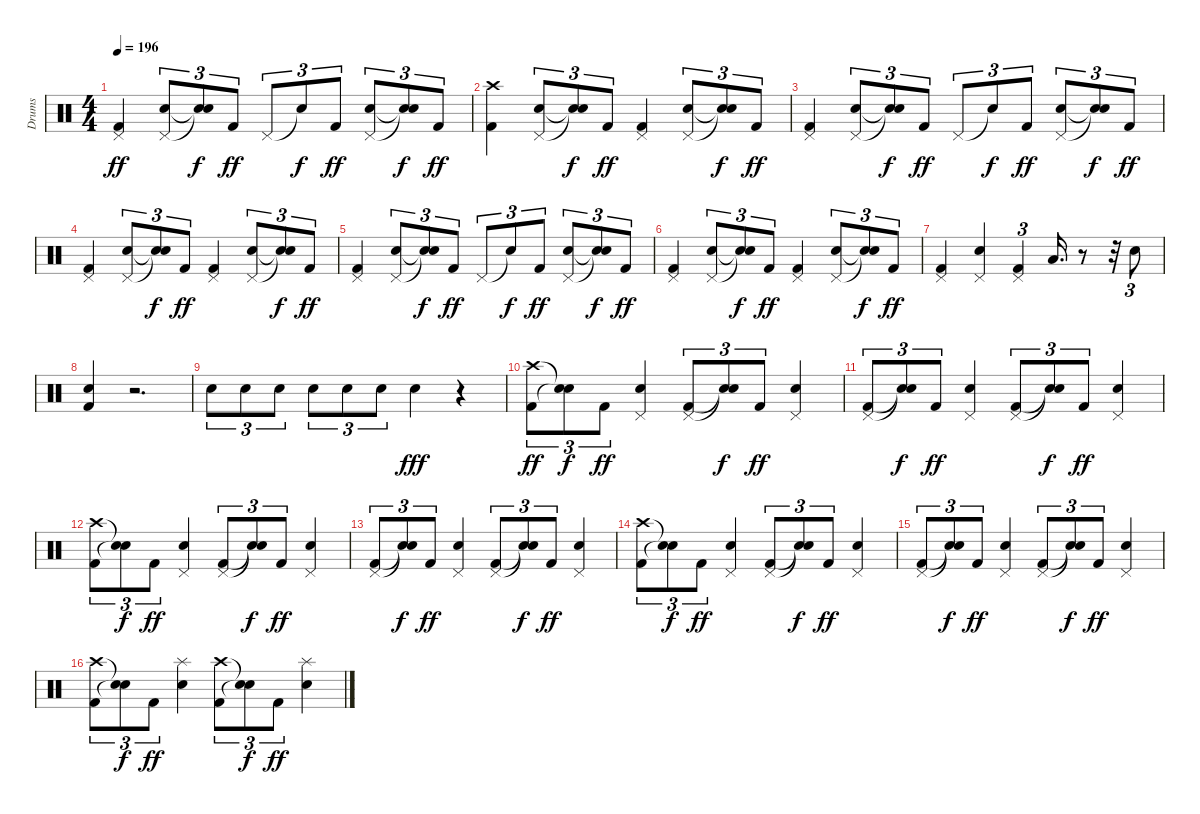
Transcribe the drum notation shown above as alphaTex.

\track ("Drums" "Drums") {instrument percussion}
\staff {score}
\articulation defaults
\ts (4 4)
\tempo 196
\clef neutral
\ks c
("Pedal Hi-Hat (hit)" "Kick (hit) 2").4{dy ff} ("Pedal Hi-Hat (hit)" "Electric Snare (hit)").8{tu (3 2)} ("Snare (hit)"{t} "Snare (hit)"{t}).8{tu (3 2) dy f} "Kick (hit) 2".8{tu (3 2) dy ff} "Pedal Hi-Hat (hit)".8{tu (3 2)} "Snare (hit)"{t}.8{tu (3 2) dy f} "Kick (hit) 2".8{tu (3 2) dy ff} ("Pedal Hi-Hat (hit)" "Electric Snare (hit)").8{tu (3 2)} ("Snare (hit)"{t} "Snare (hit)"{t}).8{tu (3 2) dy f} "Kick (hit) 2".8{tu (3 2) dy ff} |
("Crash high (hit)" "Kick (hit) 2").4 ("Pedal Hi-Hat (hit)" "Electric Snare (hit)").8{tu (3 2)} ("Snare (hit)"{t} "Snare (hit)"{t}).8{tu (3 2) dy f} "Kick (hit) 2".8{tu (3 2) dy ff} ("Pedal Hi-Hat (hit)" "Kick (hit) 2").4 ("Pedal Hi-Hat (hit)" "Electric Snare (hit)").8{tu (3 2)} ("Snare (hit)"{t} "Snare (hit)"{t}).8{tu (3 2) dy f} "Kick (hit) 2".8{tu (3 2) dy ff} |
("Pedal Hi-Hat (hit)" "Kick (hit) 2").4 ("Pedal Hi-Hat (hit)" "Electric Snare (hit)").8{tu (3 2)} ("Snare (hit)"{t} "Snare (hit)"{t}).8{tu (3 2) dy f} "Kick (hit) 2".8{tu (3 2) dy ff} "Pedal Hi-Hat (hit)".8{tu (3 2)} "Snare (hit)"{t}.8{tu (3 2) dy f} "Kick (hit) 2".8{tu (3 2) dy ff} ("Pedal Hi-Hat (hit)" "Electric Snare (hit)").8{tu (3 2)} ("Snare (hit)"{t} "Snare (hit)"{t}).8{tu (3 2) dy f} "Kick (hit) 2".8{tu (3 2) dy ff} |
("Pedal Hi-Hat (hit)" "Kick (hit) 2").4 ("Pedal Hi-Hat (hit)" "Electric Snare (hit)").8{tu (3 2)} ("Snare (hit)"{t} "Snare (hit)"{t}).8{tu (3 2) dy f} "Kick (hit) 2".8{tu (3 2) dy ff} ("Pedal Hi-Hat (hit)" "Kick (hit) 2").4 ("Pedal Hi-Hat (hit)" "Electric Snare (hit)").8{tu (3 2)} ("Snare (hit)"{t} "Snare (hit)"{t}).8{tu (3 2) dy f} "Kick (hit) 2".8{tu (3 2) dy ff} |
("Pedal Hi-Hat (hit)" "Kick (hit) 2").4 ("Pedal Hi-Hat (hit)" "Electric Snare (hit)").8{tu (3 2)} ("Snare (hit)"{t} "Snare (hit)"{t}).8{tu (3 2) dy f} "Kick (hit) 2".8{tu (3 2) dy ff} "Pedal Hi-Hat (hit)".8{tu (3 2)} "Snare (hit)"{t}.8{tu (3 2) dy f} "Kick (hit) 2".8{tu (3 2) dy ff} ("Pedal Hi-Hat (hit)" "Electric Snare (hit)").8{tu (3 2)} ("Snare (hit)"{t} "Snare (hit)"{t}).8{tu (3 2) dy f} "Kick (hit) 2".8{tu (3 2) dy ff} |
("Pedal Hi-Hat (hit)" "Kick (hit) 2").4 ("Pedal Hi-Hat (hit)" "Electric Snare (hit)").8{tu (3 2)} ("Snare (hit)"{t} "Snare (hit)"{t}).8{tu (3 2) dy f} "Kick (hit) 2".8{tu (3 2) dy ff} ("Pedal Hi-Hat (hit)" "Kick (hit) 2").4 ("Pedal Hi-Hat (hit)" "Electric Snare (hit)").8{tu (3 2)} ("Snare (hit)"{t} "Snare (hit)"{t}).8{tu (3 2) dy f} "Kick (hit) 2".8{tu (3 2) dy ff} |
("Pedal Hi-Hat (hit)" "Kick (hit) 2").4 ("Pedal Hi-Hat (hit)" "Electric Snare (hit)").4 ("Pedal Hi-Hat (hit)" "Kick (hit) 2").4{tu (3 2)} "Low Tom (hit)".16{d} r.8 r.32 "Electric Snare (hit)".8{tu (3 2)} |
("Kick (hit) 2" "Electric Snare (hit)").4 r.2{d} |
"Electric Snare (hit)".8{tu (3 2)} "Electric Snare (hit)".8{tu (3 2)} "Electric Snare (hit)".8{tu (3 2)} "Electric Snare (hit)".8{tu (3 2)} "Electric Snare (hit)".8{tu (3 2)} "Electric Snare (hit)".8{tu (3 2)} "Electric Snare (hit)".4{dy fff} r.4 |
("Kick (hit) 2" "Crash high (hit)").8{tu (3 2) dy ff} ("Snare (hit)"{t} "Snare (hit)"{t}).8{tu (3 2) dy f} "Kick (hit) 2".8{tu (3 2) dy ff} ("Pedal Hi-Hat (hit)" "Electric Snare (hit)").4 ("Kick (hit) 2" "Pedal Hi-Hat (hit)").8{tu (3 2)} ("Snare (hit)"{t} "Snare (hit)"{t}).8{tu (3 2) dy f} "Kick (hit) 2".8{tu (3 2) dy ff} ("Pedal Hi-Hat (hit)" "Electric Snare (hit)").4 |
("Kick (hit) 2" "Pedal Hi-Hat (hit)").8{tu (3 2)} ("Snare (hit)"{t} "Snare (hit)"{t}).8{tu (3 2) dy f} "Kick (hit) 2".8{tu (3 2) dy ff} ("Pedal Hi-Hat (hit)" "Electric Snare (hit)").4 ("Kick (hit) 2" "Pedal Hi-Hat (hit)").8{tu (3 2)} ("Snare (hit)"{t} "Snare (hit)"{t}).8{tu (3 2) dy f} "Kick (hit) 2".8{tu (3 2) dy ff} ("Pedal Hi-Hat (hit)" "Electric Snare (hit)").4 |
("Kick (hit) 2" "Crash high (hit)").8{tu (3 2)} ("Snare (hit)"{t} "Snare (hit)"{t}).8{tu (3 2) dy f} "Kick (hit) 2".8{tu (3 2) dy ff} ("Pedal Hi-Hat (hit)" "Electric Snare (hit)").4 ("Kick (hit) 2" "Pedal Hi-Hat (hit)").8{tu (3 2)} ("Snare (hit)"{t} "Snare (hit)"{t}).8{tu (3 2) dy f} "Kick (hit) 2".8{tu (3 2) dy ff} ("Pedal Hi-Hat (hit)" "Electric Snare (hit)").4 |
("Kick (hit) 2" "Pedal Hi-Hat (hit)").8{tu (3 2)} ("Snare (hit)"{t} "Snare (hit)"{t}).8{tu (3 2) dy f} "Kick (hit) 2".8{tu (3 2) dy ff} ("Pedal Hi-Hat (hit)" "Electric Snare (hit)").4 ("Kick (hit) 2" "Pedal Hi-Hat (hit)").8{tu (3 2)} ("Snare (hit)"{t} "Snare (hit)"{t}).8{tu (3 2) dy f} "Kick (hit) 2".8{tu (3 2) dy ff} ("Pedal Hi-Hat (hit)" "Electric Snare (hit)").4 |
("Kick (hit) 2" "Crash high (hit)").8{tu (3 2)} ("Snare (hit)"{t} "Snare (hit)"{t}).8{tu (3 2) dy f} "Kick (hit) 2".8{tu (3 2) dy ff} ("Pedal Hi-Hat (hit)" "Electric Snare (hit)").4 ("Kick (hit) 2" "Pedal Hi-Hat (hit)").8{tu (3 2)} ("Snare (hit)"{t} "Snare (hit)"{t}).8{tu (3 2) dy f} "Kick (hit) 2".8{tu (3 2) dy ff} ("Pedal Hi-Hat (hit)" "Electric Snare (hit)").4 |
("Kick (hit) 2" "Pedal Hi-Hat (hit)").8{tu (3 2)} ("Snare (hit)"{t} "Snare (hit)"{t}).8{tu (3 2) dy f} "Kick (hit) 2".8{tu (3 2) dy ff} ("Pedal Hi-Hat (hit)" "Electric Snare (hit)").4 ("Kick (hit) 2" "Pedal Hi-Hat (hit)").8{tu (3 2)} ("Snare (hit)"{t} "Snare (hit)"{t}).8{tu (3 2) dy f} "Kick (hit) 2".8{tu (3 2) dy ff} ("Pedal Hi-Hat (hit)" "Electric Snare (hit)").4 |
("Crash high (hit)" "Kick (hit) 2").8{tu (3 2)} ("Snare (hit)"{t} "Snare (hit)"{t}).8{tu (3 2) dy f} "Kick (hit) 2".8{tu (3 2) dy ff} ("Electric Snare (hit)" "Splash (hit)").4 ("Crash high (hit)" "Kick (hit) 2").8{tu (3 2)} ("Snare (hit)"{t} "Snare (hit)"{t}).8{tu (3 2) dy f} "Kick (hit) 2".8{tu (3 2) dy ff} ("Electric Snare (hit)" "Splash (hit)").4
